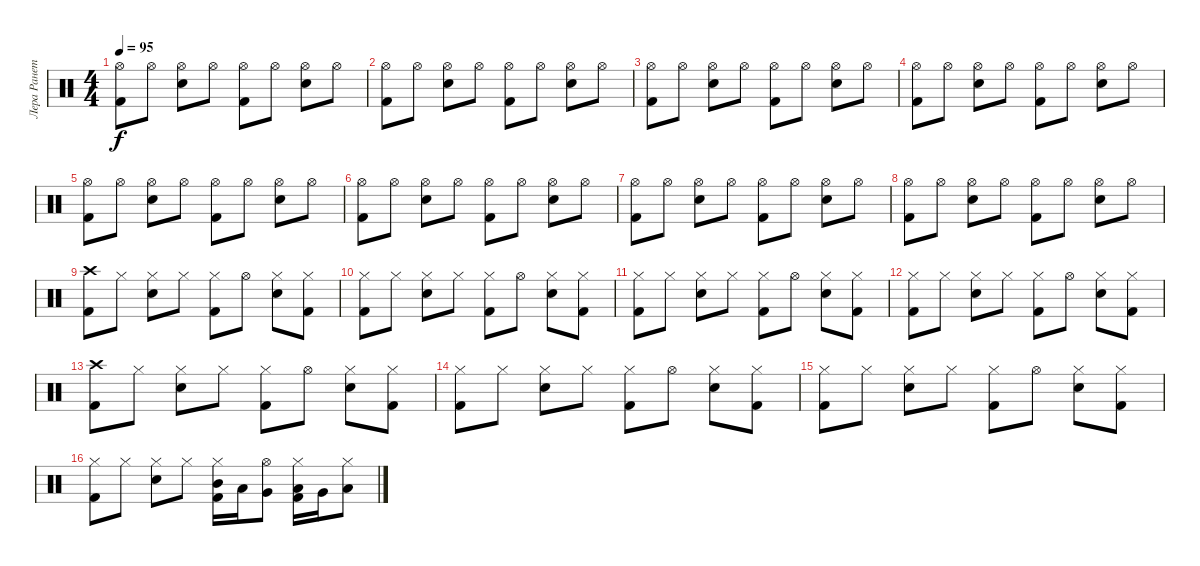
\track ("Лера Ранетка" "Лера Ранет") {instrument percussion}
\staff {score}
\articulation defaults
\ts (4 4)
\tempo 95
\clef neutral
\ks c
("Hi-Hat (open)" "Kick (hit) 2").8{dy f} "Hi-Hat (open)".8 ("Hi-Hat (open)" "Electric Snare (hit)").8 "Hi-Hat (open)".8 ("Hi-Hat (open)" "Kick (hit) 2").8 "Hi-Hat (open)".8 ("Hi-Hat (open)" "Electric Snare (hit)").8 "Hi-Hat (open)".8 |
("Hi-Hat (open)" "Kick (hit) 2").8 "Hi-Hat (open)".8 ("Hi-Hat (open)" "Electric Snare (hit)").8 "Hi-Hat (open)".8 ("Hi-Hat (open)" "Kick (hit) 2").8 "Hi-Hat (open)".8 ("Hi-Hat (open)" "Electric Snare (hit)").8 "Hi-Hat (open)".8 |
("Hi-Hat (open)" "Kick (hit) 2").8 "Hi-Hat (open)".8 ("Hi-Hat (open)" "Electric Snare (hit)").8 "Hi-Hat (open)".8 ("Hi-Hat (open)" "Kick (hit) 2").8 "Hi-Hat (open)".8 ("Hi-Hat (open)" "Electric Snare (hit)").8 "Hi-Hat (open)".8 |
("Hi-Hat (open)" "Kick (hit) 2").8 "Hi-Hat (open)".8 ("Hi-Hat (open)" "Electric Snare (hit)").8 "Hi-Hat (open)".8 ("Hi-Hat (open)" "Kick (hit) 2").8 "Hi-Hat (open)".8 ("Hi-Hat (open)" "Electric Snare (hit)").8 "Hi-Hat (open)".8 |
("Hi-Hat (open)" "Kick (hit) 2").8 "Hi-Hat (open)".8 ("Hi-Hat (open)" "Electric Snare (hit)").8 "Hi-Hat (open)".8 ("Hi-Hat (open)" "Kick (hit) 2").8 "Hi-Hat (open)".8 ("Hi-Hat (open)" "Electric Snare (hit)").8 "Hi-Hat (open)".8 |
("Hi-Hat (open)" "Kick (hit) 2").8 "Hi-Hat (open)".8 ("Hi-Hat (open)" "Electric Snare (hit)").8 "Hi-Hat (open)".8 ("Hi-Hat (open)" "Kick (hit) 2").8 "Hi-Hat (open)".8 ("Hi-Hat (open)" "Electric Snare (hit)").8 "Hi-Hat (open)".8 |
("Hi-Hat (open)" "Kick (hit) 2").8 "Hi-Hat (open)".8 ("Hi-Hat (open)" "Electric Snare (hit)").8 "Hi-Hat (open)".8 ("Hi-Hat (open)" "Kick (hit) 2").8 "Hi-Hat (open)".8 ("Hi-Hat (open)" "Electric Snare (hit)").8 "Hi-Hat (open)".8 |
("Hi-Hat (open)" "Kick (hit) 2").8 "Hi-Hat (open)".8 ("Hi-Hat (open)" "Electric Snare (hit)").8 "Hi-Hat (open)".8 ("Hi-Hat (open)" "Kick (hit) 2").8 "Hi-Hat (open)".8 ("Hi-Hat (open)" "Electric Snare (hit)").8 "Hi-Hat (open)".8 |
("Crash high (hit)" "Kick (hit) 2").8 "Hi-Hat (closed)".8 ("Hi-Hat (closed)" "Electric Snare (hit)").8 "Hi-Hat (closed)".8 ("Hi-Hat (closed)" "Kick (hit) 2").8 "Hi-Hat (open)".8 ("Hi-Hat (closed)" "Electric Snare (hit)").8 ("Hi-Hat (closed)" "Kick (hit) 2").8 |
("Hi-Hat (closed)" "Kick (hit) 2").8 "Hi-Hat (closed)".8 ("Hi-Hat (closed)" "Electric Snare (hit)").8 "Hi-Hat (closed)".8 ("Hi-Hat (closed)" "Kick (hit) 2").8 "Hi-Hat (open)".8 ("Hi-Hat (closed)" "Electric Snare (hit)").8 ("Hi-Hat (closed)" "Kick (hit) 2").8 |
("Hi-Hat (closed)" "Kick (hit) 2").8 "Hi-Hat (closed)".8 ("Hi-Hat (closed)" "Electric Snare (hit)").8 "Hi-Hat (closed)".8 ("Hi-Hat (closed)" "Kick (hit) 2").8 "Hi-Hat (open)".8 ("Hi-Hat (closed)" "Electric Snare (hit)").8 ("Hi-Hat (closed)" "Kick (hit) 2").8 |
("Hi-Hat (closed)" "Kick (hit) 2").8 "Hi-Hat (closed)".8 ("Hi-Hat (closed)" "Electric Snare (hit)").8 "Hi-Hat (closed)".8 ("Hi-Hat (closed)" "Kick (hit) 2").8 "Hi-Hat (open)".8 ("Hi-Hat (closed)" "Electric Snare (hit)").8 ("Hi-Hat (closed)" "Kick (hit) 2").8 |
("Crash high (hit)" "Kick (hit) 2").8 "Hi-Hat (closed)".8 ("Hi-Hat (closed)" "Electric Snare (hit)").8 "Hi-Hat (closed)".8 ("Hi-Hat (closed)" "Kick (hit) 2").8 "Hi-Hat (open)".8 ("Hi-Hat (closed)" "Electric Snare (hit)").8 ("Hi-Hat (closed)" "Kick (hit) 2").8 |
("Hi-Hat (closed)" "Kick (hit) 2").8 "Hi-Hat (closed)".8 ("Hi-Hat (closed)" "Electric Snare (hit)").8 "Hi-Hat (closed)".8 ("Hi-Hat (closed)" "Kick (hit) 2").8 "Hi-Hat (open)".8 ("Hi-Hat (closed)" "Electric Snare (hit)").8 ("Hi-Hat (closed)" "Kick (hit) 2").8 |
("Hi-Hat (closed)" "Kick (hit) 2").8 "Hi-Hat (closed)".8 ("Hi-Hat (closed)" "Electric Snare (hit)").8 "Hi-Hat (closed)".8 ("Hi-Hat (closed)" "Kick (hit) 2").8 "Hi-Hat (open)".8 ("Hi-Hat (closed)" "Electric Snare (hit)").8 ("Hi-Hat (closed)" "Kick (hit) 2").8 |
("Hi-Hat (closed)" "Kick (hit) 2").8 "Hi-Hat (closed)".8 ("Hi-Hat (closed)" "Electric Snare (hit)").8 "Hi-Hat (closed)".8 ("Hi-Hat (closed)" "Mid Tom (hit)" "Kick (hit) 2").16 "Low Tom (hit)".16 ("Hi-Hat (open)" "Very Low Tom (hit)").8 ("Hi-Hat (closed)" "Low Tom (hit)" "Kick (hit) 2").16 "Very Low Tom (hit)".16 ("Hi-Hat (closed)" "Low Floor Tom (hit)").8
